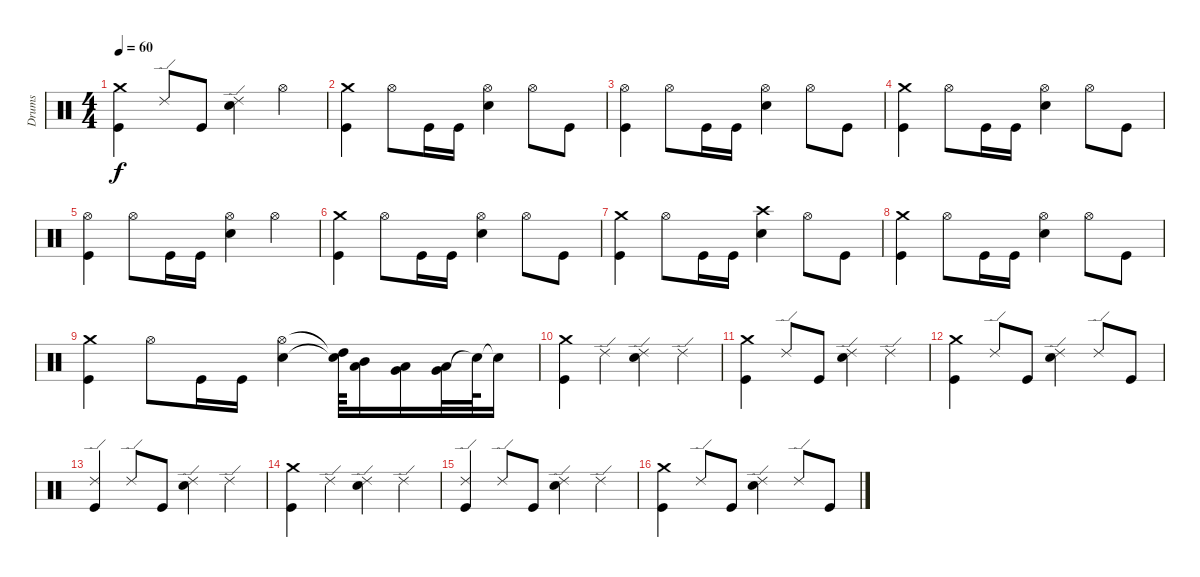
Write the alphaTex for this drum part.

\track ("Drums" "Drums") {instrument percussion}
\staff {score}
\articulation defaults
\ts (4 4)
\tempo 60
\clef neutral
\ks c
("Crash medium (hit)" "Kick (hit)").4{dy f} "Ride (edge) 2".8 "Kick (hit)".8 ("Ride (edge) 2" "Snare (hit) 2").4 "Hi-Hat (open)".4 |
("Crash medium (hit)" "Kick (hit)").4 "Hi-Hat (open)".8 "Kick (hit)".16 "Kick (hit)".16 ("Hi-Hat (open)" "Snare (hit) 2").4 "Hi-Hat (open)".8 "Kick (hit)".8 |
("Hi-Hat (open)" "Kick (hit)").4 "Hi-Hat (open)".8 "Kick (hit)".16 "Kick (hit)".16 ("Hi-Hat (open)" "Snare (hit) 2").4 "Hi-Hat (open)".8 "Kick (hit)".8 |
("Crash medium (hit)" "Kick (hit)").4 "Hi-Hat (open)".8 "Kick (hit)".16 "Kick (hit)".16 ("Hi-Hat (open)" "Snare (hit) 2").4 "Hi-Hat (open)".8 "Kick (hit)".8 |
("Hi-Hat (open)" "Kick (hit)").4 "Hi-Hat (open)".8 "Kick (hit)".16 "Kick (hit)".16 ("Hi-Hat (open)" "Snare (hit) 2").4 "Hi-Hat (open)".4 |
("Crash medium (hit)" "Kick (hit)").4 "Hi-Hat (open)".8 "Kick (hit)".16 "Kick (hit)".16 ("Hi-Hat (open)" "Snare (hit) 2").4 "Hi-Hat (open)".8 "Kick (hit)".8 |
("Crash medium (hit)" "Kick (hit)").4 "Hi-Hat (open)".8 "Kick (hit)".16 "Kick (hit)".16 ("Crash high (hit)" "Snare (hit) 2").4 "Hi-Hat (open)".8 "Kick (hit)".8 |
("Crash medium (hit)" "Kick (hit)").4 "Hi-Hat (open)".8 "Kick (hit)".16 "Kick (hit)".16 ("Hi-Hat (open)" "Snare (hit) 2").4 "Hi-Hat (open)".8 "Kick (hit)".8 |
("Crash medium (hit)" "Kick (hit)").4 "Hi-Hat (open)".8 "Kick (hit)".16 "Kick (hit)".16 ("Hi-Hat (open)" "Snare (hit) 2").4 ("High Tom (hit)"{t} "Snare (hit)"{t}).64 ("Mid Tom (hit)" "Low Tom (hit)").16 ("Low Tom (hit)" "Very Low Tom (hit)").16 ("Very Low Tom (hit)" "Low Floor Tom (hit)").32 "Snare (hit)"{t}.64 "Snare (hit)"{t}.16 |
("Crash medium (hit)" "Kick (hit)").4 "Ride (edge) 2".4 ("Ride (edge) 2" "Snare (hit) 2").4 "Ride (edge) 2".4 |
("Crash medium (hit)" "Kick (hit)").4 "Ride (edge) 2".8 "Kick (hit)".8 ("Ride (edge) 2" "Snare (hit) 2").4 "Ride (edge) 2".4 |
("Crash medium (hit)" "Kick (hit)").4 "Ride (edge) 2".8 "Kick (hit)".8 ("Ride (edge) 2" "Snare (hit) 2").4 "Ride (edge) 2".8 "Kick (hit)".8 |
("Ride (edge) 2" "Kick (hit)").4 "Ride (edge) 2".8 "Kick (hit)".8 ("Ride (edge) 2" "Snare (hit) 2").4 "Ride (edge) 2".4 |
("Crash medium (hit)" "Kick (hit)").4 "Ride (edge) 2".4 ("Ride (edge) 2" "Snare (hit) 2").4 "Ride (edge) 2".4 |
("Ride (edge) 2" "Kick (hit)").4 "Ride (edge) 2".8 "Kick (hit)".8 ("Ride (edge) 2" "Snare (hit) 2").4 "Ride (edge) 2".4 |
("Crash medium (hit)" "Kick (hit)").4 "Ride (edge) 2".8 "Kick (hit)".8 ("Ride (edge) 2" "Snare (hit) 2").4 "Ride (edge) 2".8 "Kick (hit)".8
